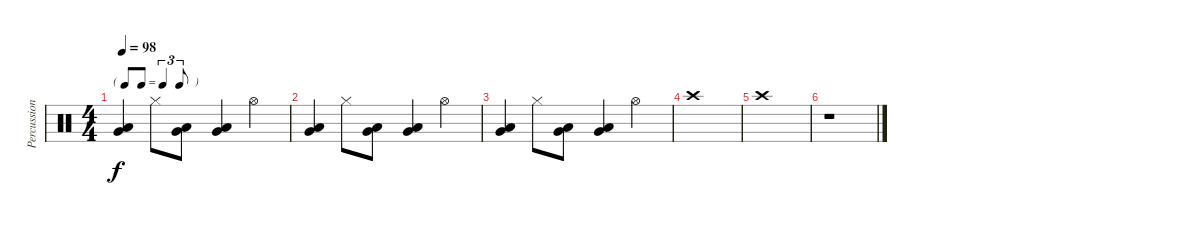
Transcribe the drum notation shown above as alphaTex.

\track ("Percussion" "Percussion") {instrument percussion}
\staff {score}
\articulation defaults
\ts (4 4)
\tf triplet8th
\tempo 98
\clef neutral
\ks c
("Very Low Tom (hit)" "Low Floor Tom (hit)").4{dy f} "Hi-Hat (closed)".8 ("Very Low Tom (hit)" "Low Floor Tom (hit)").8 ("Very Low Tom (hit)" "Low Floor Tom (hit)").4 "Hi-Hat (open)".4 |
("Very Low Tom (hit)" "Low Floor Tom (hit)").4 "Hi-Hat (closed)".8 ("Very Low Tom (hit)" "Low Floor Tom (hit)").8 ("Very Low Tom (hit)" "Low Floor Tom (hit)").4 "Hi-Hat (open)".4 |
("Very Low Tom (hit)" "Low Floor Tom (hit)").4 "Hi-Hat (closed)".8 ("Very Low Tom (hit)" "Low Floor Tom (hit)").8 ("Very Low Tom (hit)" "Low Floor Tom (hit)").4 "Hi-Hat (open)".4 |
"Crash high (hit)".1 |
"Crash high (hit)".1 |
r.1
